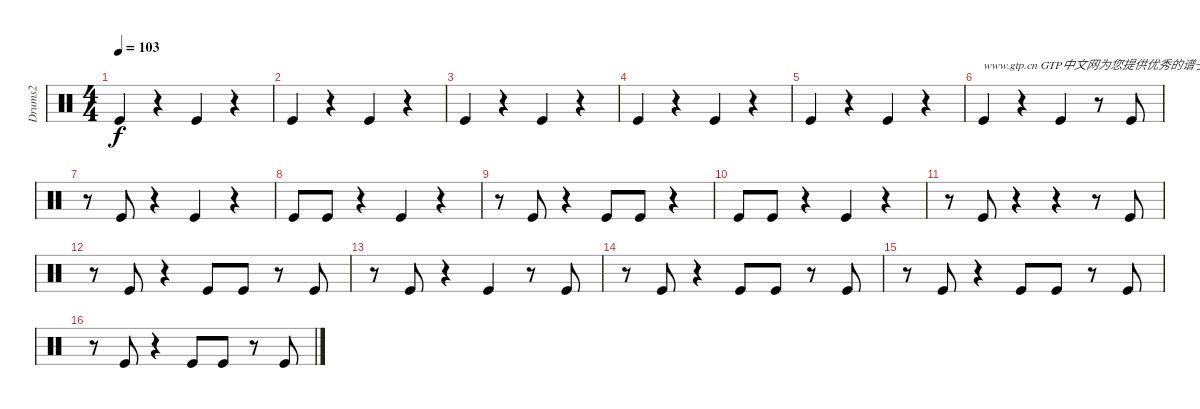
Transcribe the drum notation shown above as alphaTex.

\track ("Drums2" "Drums2") {instrument percussion}
\staff {score}
\articulation defaults
\ts (4 4)
\tempo 103
\clef neutral
\ks c "Kick (hit)".4{dy f}
r.4 "Kick (hit)".4 r.4 |
"Kick (hit)".4 r.4 "Kick (hit)".4 r.4 |
"Kick (hit)".4 r.4 "Kick (hit)".4 r.4 |
"Kick (hit)".4 r.4 "Kick (hit)".4 r.4 |
"Kick (hit)".4 r.4 "Kick (hit)".4 r.4 |
"Kick (hit)".4{txt "www.gtp.cn GTP中文网为您提供优秀的谱子"} r.4 "Kick (hit)".4 r.8 "Kick (hit)".8 |
r.8 "Kick (hit)".8 r.4 "Kick (hit)".4 r.4 |
"Kick (hit)".8 "Kick (hit)".8 r.4 "Kick (hit)".4 r.4 |
r.8 "Kick (hit)".8 r.4 "Kick (hit)".8 "Kick (hit)".8 r.4 |
"Kick (hit)".8 "Kick (hit)".8 r.4 "Kick (hit)".4 r.4 |
r.8 "Kick (hit)".8 r.4 r.4 r.8 "Kick (hit)".8 |
r.8 "Kick (hit)".8 r.4 "Kick (hit)".8 "Kick (hit)".8 r.8 "Kick (hit)".8 |
r.8 "Kick (hit)".8 r.4 "Kick (hit)".4 r.8 "Kick (hit)".8 |
r.8 "Kick (hit)".8 r.4 "Kick (hit)".8 "Kick (hit)".8 r.8 "Kick (hit)".8 |
r.8 "Kick (hit)".8 r.4 "Kick (hit)".8 "Kick (hit)".8 r.8 "Kick (hit)".8 |
r.8 "Kick (hit)".8 r.4 "Kick (hit)".8 "Kick (hit)".8 r.8 "Kick (hit)".8
